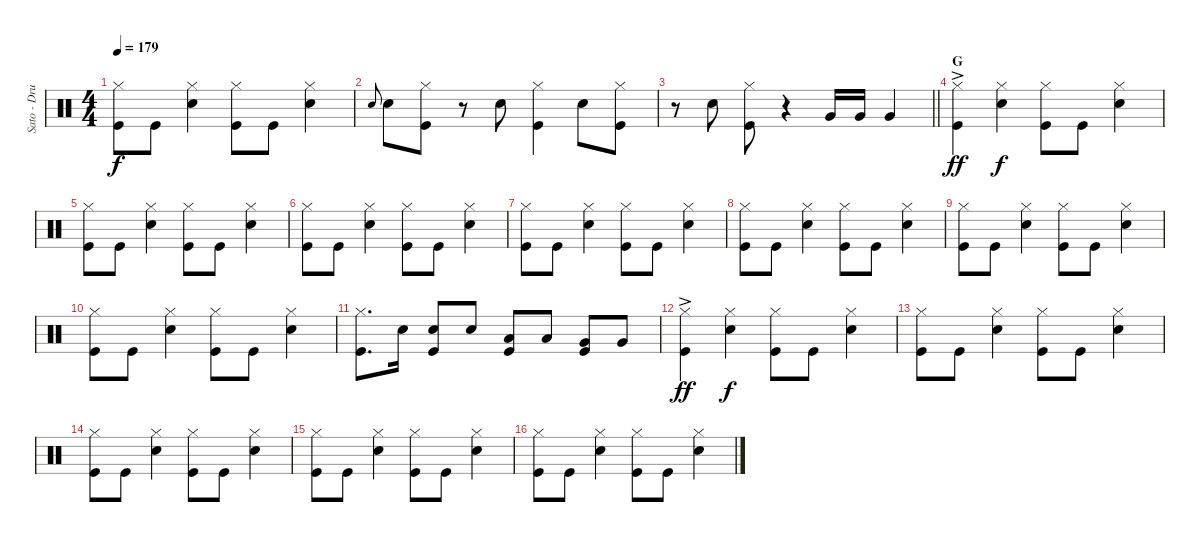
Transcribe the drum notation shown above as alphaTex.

\track ("Sato - Drums" "Sato - Dru") {instrument percussion}
\staff {score}
\articulation defaults
\ts (4 4)
\tempo 179
\clef neutral
\ks c
("Hi-Hat (closed)" "Kick (hit)").8{dy f} "Kick (hit)".8 ("Hi-Hat (closed)" "Electric Snare (hit)").4 ("Hi-Hat (closed)" "Kick (hit)").8 "Kick (hit)".8 ("Hi-Hat (closed)" "Electric Snare (hit)").4 |
"Electric Snare (hit)".8{gr onbeat} "Electric Snare (hit)".8 ("Hi-Hat (closed)" "Kick (hit)").8 r.8 "Electric Snare (hit)".8 ("Hi-Hat (closed)" "Kick (hit)").4 "Electric Snare (hit)".8 ("Hi-Hat (closed)" "Kick (hit)").8 |
\barLineRight lightlight
r.8 "Electric Snare (hit)".8 ("Hi-Hat (closed)" "Kick (hit)").8 r.4 "Very Low Tom (hit)".16 "Very Low Tom (hit)".16 "Very Low Tom (hit)".4 |
\section ("" "G")
("Hi-Hat (closed)"{ac} "Kick (hit)"{ac}).4{dy ff} ("Hi-Hat (closed)" "Electric Snare (hit)").4{dy f} ("Hi-Hat (closed)" "Kick (hit)").8 "Kick (hit)".8 ("Hi-Hat (closed)" "Electric Snare (hit)").4 |
("Hi-Hat (closed)" "Kick (hit)").8 "Kick (hit)".8 ("Hi-Hat (closed)" "Electric Snare (hit)").4 ("Hi-Hat (closed)" "Kick (hit)").8 "Kick (hit)".8 ("Hi-Hat (closed)" "Electric Snare (hit)").4 |
("Hi-Hat (closed)" "Kick (hit)").8 "Kick (hit)".8 ("Hi-Hat (closed)" "Electric Snare (hit)").4 ("Hi-Hat (closed)" "Kick (hit)").8 "Kick (hit)".8 ("Hi-Hat (closed)" "Electric Snare (hit)").4 |
("Hi-Hat (closed)" "Kick (hit)").8 "Kick (hit)".8 ("Hi-Hat (closed)" "Electric Snare (hit)").4 ("Hi-Hat (closed)" "Kick (hit)").8 "Kick (hit)".8 ("Hi-Hat (closed)" "Electric Snare (hit)").4 |
("Hi-Hat (closed)" "Kick (hit)").8 "Kick (hit)".8 ("Hi-Hat (closed)" "Electric Snare (hit)").4 ("Hi-Hat (closed)" "Kick (hit)").8 "Kick (hit)".8 ("Hi-Hat (closed)" "Electric Snare (hit)").4 |
("Hi-Hat (closed)" "Kick (hit)").8 "Kick (hit)".8 ("Hi-Hat (closed)" "Electric Snare (hit)").4 ("Hi-Hat (closed)" "Kick (hit)").8 "Kick (hit)".8 ("Hi-Hat (closed)" "Electric Snare (hit)").4 |
("Hi-Hat (closed)" "Kick (hit)").8 "Kick (hit)".8 ("Hi-Hat (closed)" "Electric Snare (hit)").4 ("Hi-Hat (closed)" "Kick (hit)").8 "Kick (hit)".8 ("Hi-Hat (closed)" "Electric Snare (hit)").4 |
("Hi-Hat (closed)" "Kick (hit)").8{d} "Electric Snare (hit)".16 ("Electric Snare (hit)" "Kick (hit)").8 "Electric Snare (hit)".8 ("Low Tom (hit)" "Kick (hit)").8 "Low Tom (hit)".8 ("Very Low Tom (hit)" "Kick (hit)").8 "Very Low Tom (hit)".8 |
("Hi-Hat (closed)"{ac} "Kick (hit)"{ac}).4{dy ff} ("Hi-Hat (closed)" "Electric Snare (hit)").4{dy f} ("Hi-Hat (closed)" "Kick (hit)").8 "Kick (hit)".8 ("Hi-Hat (closed)" "Electric Snare (hit)").4 |
("Hi-Hat (closed)" "Kick (hit)").8 "Kick (hit)".8 ("Hi-Hat (closed)" "Electric Snare (hit)").4 ("Hi-Hat (closed)" "Kick (hit)").8 "Kick (hit)".8 ("Hi-Hat (closed)" "Electric Snare (hit)").4 |
("Hi-Hat (closed)" "Kick (hit)").8 "Kick (hit)".8 ("Hi-Hat (closed)" "Electric Snare (hit)").4 ("Hi-Hat (closed)" "Kick (hit)").8 "Kick (hit)".8 ("Hi-Hat (closed)" "Electric Snare (hit)").4 |
("Hi-Hat (closed)" "Kick (hit)").8 "Kick (hit)".8 ("Hi-Hat (closed)" "Electric Snare (hit)").4 ("Hi-Hat (closed)" "Kick (hit)").8 "Kick (hit)".8 ("Hi-Hat (closed)" "Electric Snare (hit)").4 |
("Hi-Hat (closed)" "Kick (hit)").8 "Kick (hit)".8 ("Hi-Hat (closed)" "Electric Snare (hit)").4 ("Hi-Hat (closed)" "Kick (hit)").8 "Kick (hit)".8 ("Hi-Hat (closed)" "Electric Snare (hit)").4
